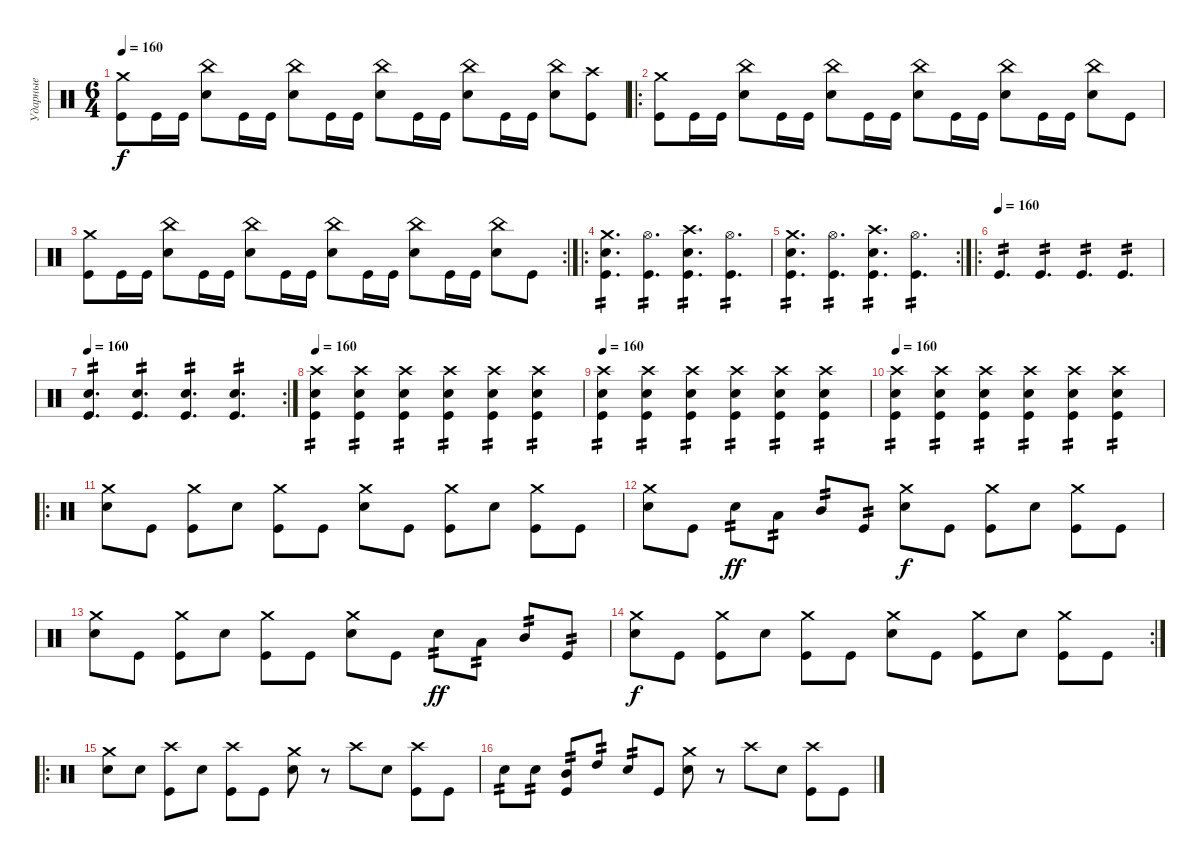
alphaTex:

\track ("Ударные" "Ударные") {instrument percussion}
\staff {score}
\articulation defaults
\ts (6 4)
\tempo 160
\clef neutral
\ks c
("Crash medium (hit)" "Kick (hit)").8{dy f} "Kick (hit)".16 "Kick (hit)".16 ("China (hit)" "Snare (hit) 2").8 "Kick (hit)".16 "Kick (hit)".16 ("China (hit)" "Snare (hit) 2").8 "Kick (hit)".16 "Kick (hit)".16 ("China (hit)" "Snare (hit) 2").8 "Kick (hit)".16 "Kick (hit)".16 ("China (hit)" "Snare (hit) 2").8 "Kick (hit)".16 "Kick (hit)".16 ("China (hit)" "Snare (hit) 2").8 ("Crash high (hit)" "Kick (hit)").8 |
\ro
("Crash medium (hit)" "Kick (hit)").8 "Kick (hit)".16 "Kick (hit)".16 ("China (hit)" "Snare (hit) 2").8 "Kick (hit)".16 "Kick (hit)".16 ("China (hit)" "Snare (hit) 2").8 "Kick (hit)".16 "Kick (hit)".16 ("China (hit)" "Snare (hit) 2").8 "Kick (hit)".16 "Kick (hit)".16 ("China (hit)" "Snare (hit) 2").8 "Kick (hit)".16 "Kick (hit)".16 ("China (hit)" "Snare (hit) 2").8 "Kick (hit)".8 |
\rc 2
("Crash medium (hit)" "Kick (hit)").8 "Kick (hit)".16 "Kick (hit)".16 ("China (hit)" "Snare (hit) 2").8 "Kick (hit)".16 "Kick (hit)".16 ("China (hit)" "Snare (hit) 2").8 "Kick (hit)".16 "Kick (hit)".16 ("China (hit)" "Snare (hit) 2").8 "Kick (hit)".16 "Kick (hit)".16 ("China (hit)" "Snare (hit) 2").8 "Kick (hit)".16 "Kick (hit)".16 ("China (hit)" "Snare (hit) 2").8 "Kick (hit)".8 |
\ro
("Crash medium (hit)" "Snare (hit) 2" "Kick (hit)").4{d tp 2} ("Hi-Hat (open)" "Kick (hit)").4{d tp 2} ("Crash high (hit)" "Snare (hit) 2" "Kick (hit)").4{d tp 2} ("Hi-Hat (open)" "Kick (hit)").4{d tp 2} |
\rc 2
("Crash medium (hit)" "Snare (hit) 2" "Kick (hit)").4{d tp 2} ("Hi-Hat (open)" "Kick (hit)").4{d tp 2} ("Crash high (hit)" "Snare (hit) 2" "Kick (hit)").4{d tp 2} ("Hi-Hat (open)" "Kick (hit)").4{d tp 2} |
\ro
\tempo (160)
"Kick (hit)".4{d tp 2} "Kick (hit)".4{d tp 2} "Kick (hit)".4{d tp 2} "Kick (hit)".4{d tp 2} |
\rc 2
\tempo 160
("Snare (hit) 2" "Kick (hit)").4{d tp 2} ("Snare (hit) 2" "Kick (hit)").4{d tp 2} ("Snare (hit) 2" "Kick (hit)").4{d tp 2} ("Snare (hit) 2" "Kick (hit)").4{d tp 2} |
\tempo 160
("Crash high (hit)" "Snare (hit) 2" "Kick (hit)").4{tp 2} ("Crash high (hit)" "Snare (hit) 2" "Kick (hit)").4{tp 2} ("Crash high (hit)" "Snare (hit) 2" "Kick (hit)").4{tp 2} ("Crash high (hit)" "Snare (hit) 2" "Kick (hit)").4{tp 2} ("Crash high (hit)" "Snare (hit) 2" "Kick (hit)").4{tp 2} ("Crash high (hit)" "Snare (hit) 2" "Kick (hit)").4{tp 2} |
\tempo 160
("Crash high (hit)" "Snare (hit) 2" "Kick (hit)").4{tp 2} ("Crash high (hit)" "Snare (hit) 2" "Kick (hit)").4{tp 2} ("Crash high (hit)" "Snare (hit) 2" "Kick (hit)").4{tp 2} ("Crash high (hit)" "Snare (hit) 2" "Kick (hit)").4{tp 2} ("Crash high (hit)" "Snare (hit) 2" "Kick (hit)").4{tp 2} ("Crash high (hit)" "Snare (hit) 2" "Kick (hit)").4{tp 2} |
\tempo 160
("Crash high (hit)" "Snare (hit) 2" "Kick (hit)").4{tp 2} ("Crash high (hit)" "Snare (hit) 2" "Kick (hit)").4{tp 2} ("Crash high (hit)" "Snare (hit) 2" "Kick (hit)").4{tp 2} ("Crash high (hit)" "Snare (hit) 2" "Kick (hit)").4{tp 2} ("Crash high (hit)" "Snare (hit) 2" "Kick (hit)").4{tp 2} ("Crash high (hit)" "Snare (hit) 2" "Kick (hit)").4{tp 2} |
\ro
("Crash medium (hit)" "Snare (hit) 2").8 "Kick (hit)".8 ("Crash medium (hit)" "Kick (hit)").8 "Snare (hit) 2".8 ("Crash medium (hit)" "Kick (hit)").8 "Kick (hit)".8 ("Crash medium (hit)" "Snare (hit) 2").8 "Kick (hit)".8 ("Crash medium (hit)" "Kick (hit)").8 "Snare (hit) 2".8 ("Crash medium (hit)" "Kick (hit)").8 "Kick (hit)".8 |
("Crash medium (hit)" "Snare (hit) 2").8 "Kick (hit)".8 "Snare (hit) 2".8{tp 2 dy ff} "Low Tom (hit)".8{tp 2} "Mid Tom (hit)".8{tp 2} "Kick (hit)".8{tp 2} ("Crash medium (hit)" "Snare (hit) 2").8{dy f} "Kick (hit)".8 ("Crash medium (hit)" "Kick (hit)").8 "Snare (hit) 2".8 ("Crash medium (hit)" "Kick (hit)").8 "Kick (hit)".8 |
("Crash medium (hit)" "Snare (hit) 2").8 "Kick (hit)".8 ("Crash medium (hit)" "Kick (hit)").8 "Snare (hit) 2".8 ("Crash medium (hit)" "Kick (hit)").8 "Kick (hit)".8 ("Crash medium (hit)" "Snare (hit) 2").8 "Kick (hit)".8 "Snare (hit) 2".8{tp 2 dy ff} "Low Tom (hit)".8{tp 2} "Mid Tom (hit)".8{tp 2} "Kick (hit)".8{tp 2} |
\rc 2
("Crash medium (hit)" "Snare (hit) 2").8{dy f} "Kick (hit)".8 ("Crash medium (hit)" "Kick (hit)").8 "Snare (hit) 2".8 ("Crash medium (hit)" "Kick (hit)").8 "Kick (hit)".8 ("Crash medium (hit)" "Snare (hit) 2").8 "Kick (hit)".8 ("Crash medium (hit)" "Kick (hit)").8 "Snare (hit) 2".8 ("Crash medium (hit)" "Kick (hit)").8 "Kick (hit)".8 |
\ro
("Crash medium (hit)" "Snare (hit) 2").8 "Snare (hit) 2".8 ("Crash high (hit)" "Kick (hit)").8 "Snare (hit) 2".8 ("Crash high (hit)" "Kick (hit)").8 "Kick (hit)".8 ("Crash medium (hit)" "Snare (hit) 2").8 r.8 "Crash high (hit)".8 "Snare (hit) 2".8 ("Crash high (hit)" "Kick (hit)").8 "Kick (hit)".8 |
"Snare (hit) 2".8{tp 2} "Snare (hit) 2".8{tp 2} ("Mid Tom (hit)" "Kick (hit)").8{tp 2} "High Tom (hit)".8{tp 2} "Snare (hit) 2".8{tp 2} "Kick (hit)".8 ("Crash medium (hit)" "Snare (hit) 2").8 r.8 "Crash high (hit)".8 "Snare (hit) 2".8 ("Crash high (hit)" "Kick (hit)").8 "Kick (hit)".8
